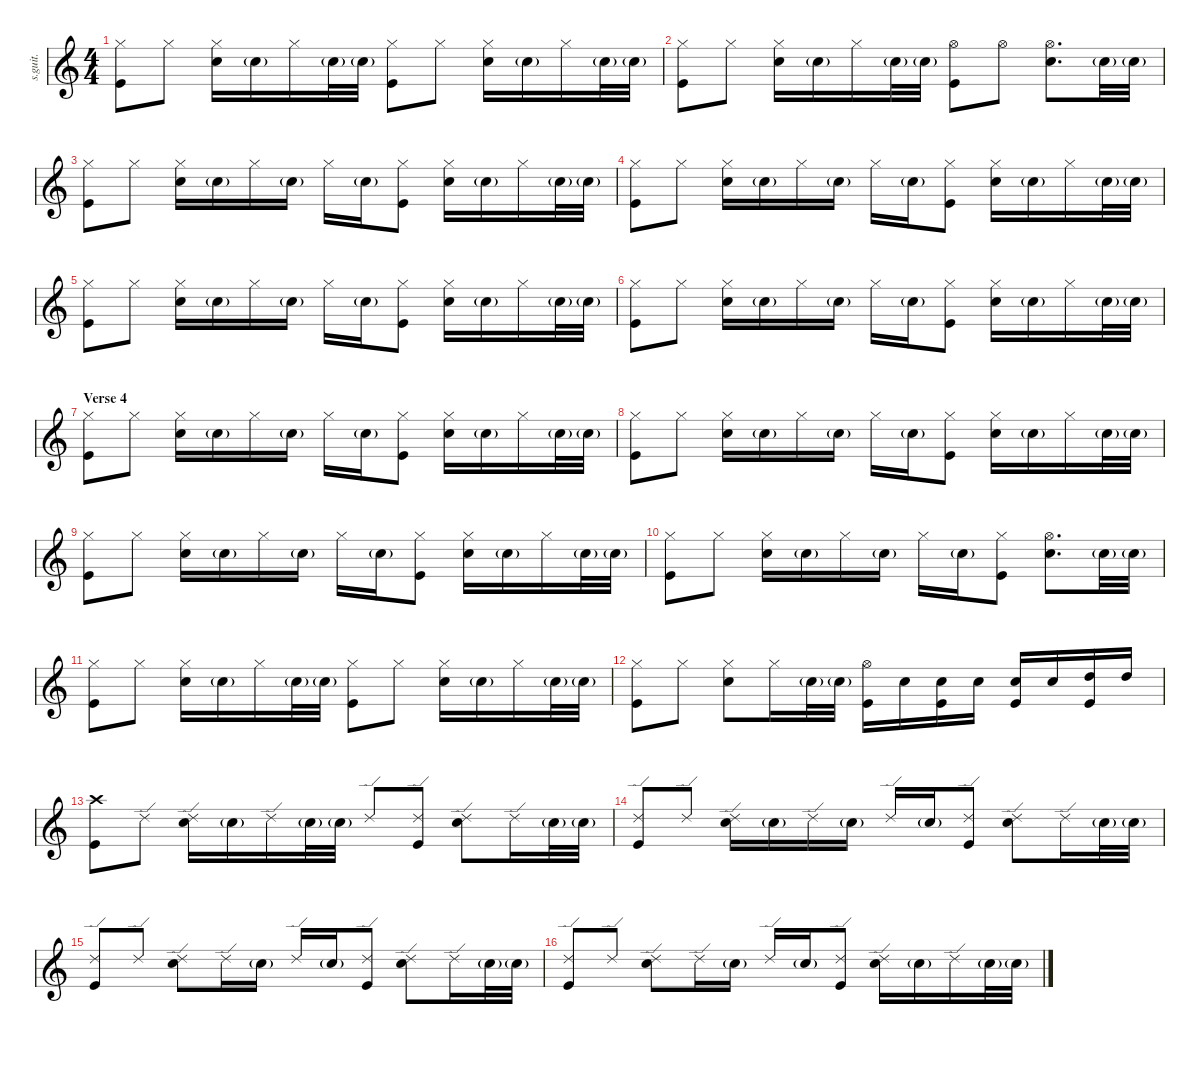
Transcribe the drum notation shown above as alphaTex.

\defaultSystemsLayout 4
\hideDynamics
\bracketExtendMode nobrackets
\track ("C. Smith" "s.guit.") {instrument percussion}
\staff {score}
\articulation defaults
\ts (4 4)
\tempo (96 hide)
\clef g2
\ks c
("Hi-Hat (closed)" "Kick (hit)").8{lyrics (0 "") lyrics (1 "") lyrics (2 "") lyrics (3 "") lyrics (4 "") dy f} "Hi-Hat (closed)".8{lyrics (0 "") lyrics (1 "") lyrics (2 "") lyrics (3 "") lyrics (4 "") dy mp} ("Hi-Hat (closed)" "Snare (hit) 2").16{lyrics (0 "") lyrics (1 "") lyrics (2 "") lyrics (3 "") lyrics (4 "") dy f} "Snare (hit) 2"{g}.16{lyrics (0 "") lyrics (1 "") lyrics (2 "") lyrics (3 "") lyrics (4 "") dy ppp} "Hi-Hat (closed)".16{lyrics (0 "") lyrics (1 "") lyrics (2 "") lyrics (3 "") lyrics (4 "") dy mp} "Snare (hit) 2"{g}.32{lyrics (0 "") lyrics (1 "") lyrics (2 "") lyrics (3 "") lyrics (4 "") dy ppp} "Snare (hit) 2"{g}.32{lyrics (0 "") lyrics (1 "") lyrics (2 "") lyrics (3 "") lyrics (4 "")} ("Hi-Hat (closed)" "Kick (hit)").8{lyrics (0 "") lyrics (1 "") lyrics (2 "") lyrics (3 "") lyrics (4 "") dy f} "Hi-Hat (closed)".8{lyrics (0 "") lyrics (1 "") lyrics (2 "") lyrics (3 "") lyrics (4 "") dy mp} ("Hi-Hat (closed)" "Snare (hit) 2").16{lyrics (0 "") lyrics (1 "") lyrics (2 "") lyrics (3 "") lyrics (4 "") dy f} "Snare (hit) 2"{g}.16{lyrics (0 "") lyrics (1 "") lyrics (2 "") lyrics (3 "") lyrics (4 "") dy ppp} "Hi-Hat (closed)".16{lyrics (0 "") lyrics (1 "") lyrics (2 "") lyrics (3 "") lyrics (4 "") dy mp} "Snare (hit) 2"{g}.32{lyrics (0 "") lyrics (1 "") lyrics (2 "") lyrics (3 "") lyrics (4 "") dy ppp} "Snare (hit) 2"{g}.32{lyrics (0 "") lyrics (1 "") lyrics (2 "") lyrics (3 "") lyrics (4 "")} |
("Hi-Hat (closed)" "Kick (hit)").8{lyrics (0 "") lyrics (1 "") lyrics (2 "") lyrics (3 "") lyrics (4 "") dy f} "Hi-Hat (closed)".8{lyrics (0 "") lyrics (1 "") lyrics (2 "") lyrics (3 "") lyrics (4 "") dy mp} ("Hi-Hat (closed)" "Snare (hit) 2").16{lyrics (0 "") lyrics (1 "") lyrics (2 "") lyrics (3 "") lyrics (4 "") dy f} "Snare (hit) 2"{g}.16{lyrics (0 "") lyrics (1 "") lyrics (2 "") lyrics (3 "") lyrics (4 "") dy ppp} "Hi-Hat (closed)".16{lyrics (0 "") lyrics (1 "") lyrics (2 "") lyrics (3 "") lyrics (4 "") dy mp} "Snare (hit) 2"{g}.32{lyrics (0 "") lyrics (1 "") lyrics (2 "") lyrics (3 "") lyrics (4 "") dy ppp} "Snare (hit) 2"{g}.32{lyrics (0 "") lyrics (1 "") lyrics (2 "") lyrics (3 "") lyrics (4 "")} ("Hi-Hat (open)" "Kick (hit)").8{lyrics (0 "") lyrics (1 "") lyrics (2 "") lyrics (3 "") lyrics (4 "") dy f} "Hi-Hat (open)".8{lyrics (0 "") lyrics (1 "") lyrics (2 "") lyrics (3 "") lyrics (4 "") dy mp} ("Hi-Hat (open)" "Snare (hit) 2").8{d lyrics (0 "") lyrics (1 "") lyrics (2 "") lyrics (3 "") lyrics (4 "") dy f} "Snare (hit) 2"{g}.32{lyrics (0 "") lyrics (1 "") lyrics (2 "") lyrics (3 "") lyrics (4 "") dy ppp} "Snare (hit) 2"{g}.32{lyrics (0 "") lyrics (1 "") lyrics (2 "") lyrics (3 "") lyrics (4 "")} |
("Hi-Hat (closed)" "Kick (hit)").8{lyrics (0 "") lyrics (1 "") lyrics (2 "") lyrics (3 "") lyrics (4 "") dy f} "Hi-Hat (closed)".8{lyrics (0 "") lyrics (1 "") lyrics (2 "") lyrics (3 "") lyrics (4 "") dy mp} ("Hi-Hat (closed)" "Snare (hit) 2").16{lyrics (0 "") lyrics (1 "") lyrics (2 "") lyrics (3 "") lyrics (4 "") dy f} "Snare (hit) 2"{g}.16{lyrics (0 "") lyrics (1 "") lyrics (2 "") lyrics (3 "") lyrics (4 "") dy ppp} "Hi-Hat (closed)".16{lyrics (0 "") lyrics (1 "") lyrics (2 "") lyrics (3 "") lyrics (4 "") dy mp} "Snare (hit) 2"{g}.16{lyrics (0 "") lyrics (1 "") lyrics (2 "") lyrics (3 "") lyrics (4 "") dy ppp} "Hi-Hat (closed)".16{lyrics (0 "") lyrics (1 "") lyrics (2 "") lyrics (3 "") lyrics (4 "") dy fff} "Snare (hit) 2"{g}.16{lyrics (0 "") lyrics (1 "") lyrics (2 "") lyrics (3 "") lyrics (4 "") dy ppp} ("Hi-Hat (closed)" "Kick (hit)").8{lyrics (0 "") lyrics (1 "") lyrics (2 "") lyrics (3 "") lyrics (4 "") dy f} ("Hi-Hat (closed)" "Snare (hit) 2").16{lyrics (0 "") lyrics (1 "") lyrics (2 "") lyrics (3 "") lyrics (4 "")} "Snare (hit) 2"{g}.16{lyrics (0 "") lyrics (1 "") lyrics (2 "") lyrics (3 "") lyrics (4 "") dy ppp} "Hi-Hat (closed)".16{lyrics (0 "") lyrics (1 "") lyrics (2 "") lyrics (3 "") lyrics (4 "") dy mp} "Snare (hit) 2"{g}.32{lyrics (0 "") lyrics (1 "") lyrics (2 "") lyrics (3 "") lyrics (4 "") dy ppp} "Snare (hit) 2"{g}.32{lyrics (0 "") lyrics (1 "") lyrics (2 "") lyrics (3 "") lyrics (4 "")} |
("Hi-Hat (closed)" "Kick (hit)").8{lyrics (0 "") lyrics (1 "") lyrics (2 "") lyrics (3 "") lyrics (4 "") dy f} "Hi-Hat (closed)".8{lyrics (0 "") lyrics (1 "") lyrics (2 "") lyrics (3 "") lyrics (4 "") dy mp} ("Hi-Hat (closed)" "Snare (hit) 2").16{lyrics (0 "") lyrics (1 "") lyrics (2 "") lyrics (3 "") lyrics (4 "") dy f} "Snare (hit) 2"{g}.16{lyrics (0 "") lyrics (1 "") lyrics (2 "") lyrics (3 "") lyrics (4 "") dy ppp} "Hi-Hat (closed)".16{lyrics (0 "") lyrics (1 "") lyrics (2 "") lyrics (3 "") lyrics (4 "") dy mp} "Snare (hit) 2"{g}.16{lyrics (0 "") lyrics (1 "") lyrics (2 "") lyrics (3 "") lyrics (4 "") dy ppp} "Hi-Hat (closed)".16{lyrics (0 "") lyrics (1 "") lyrics (2 "") lyrics (3 "") lyrics (4 "") dy fff} "Snare (hit) 2"{g}.16{lyrics (0 "") lyrics (1 "") lyrics (2 "") lyrics (3 "") lyrics (4 "") dy ppp} ("Hi-Hat (closed)" "Kick (hit)").8{lyrics (0 "") lyrics (1 "") lyrics (2 "") lyrics (3 "") lyrics (4 "") dy f} ("Hi-Hat (closed)" "Snare (hit) 2").16{lyrics (0 "") lyrics (1 "") lyrics (2 "") lyrics (3 "") lyrics (4 "")} "Snare (hit) 2"{g}.16{lyrics (0 "") lyrics (1 "") lyrics (2 "") lyrics (3 "") lyrics (4 "") dy ppp} "Hi-Hat (closed)".16{lyrics (0 "") lyrics (1 "") lyrics (2 "") lyrics (3 "") lyrics (4 "") dy mp} "Snare (hit) 2"{g}.32{lyrics (0 "") lyrics (1 "") lyrics (2 "") lyrics (3 "") lyrics (4 "") dy ppp} "Snare (hit) 2"{g}.32{lyrics (0 "") lyrics (1 "") lyrics (2 "") lyrics (3 "") lyrics (4 "")} |
("Hi-Hat (closed)" "Kick (hit)").8{lyrics (0 "") lyrics (1 "") lyrics (2 "") lyrics (3 "") lyrics (4 "") dy f} "Hi-Hat (closed)".8{lyrics (0 "") lyrics (1 "") lyrics (2 "") lyrics (3 "") lyrics (4 "") dy mp} ("Hi-Hat (closed)" "Snare (hit) 2").16{lyrics (0 "") lyrics (1 "") lyrics (2 "") lyrics (3 "") lyrics (4 "") dy f} "Snare (hit) 2"{g}.16{lyrics (0 "") lyrics (1 "") lyrics (2 "") lyrics (3 "") lyrics (4 "") dy ppp} "Hi-Hat (closed)".16{lyrics (0 "") lyrics (1 "") lyrics (2 "") lyrics (3 "") lyrics (4 "") dy mp} "Snare (hit) 2"{g}.16{lyrics (0 "") lyrics (1 "") lyrics (2 "") lyrics (3 "") lyrics (4 "") dy ppp} "Hi-Hat (closed)".16{lyrics (0 "") lyrics (1 "") lyrics (2 "") lyrics (3 "") lyrics (4 "") dy fff} "Snare (hit) 2"{g}.16{lyrics (0 "") lyrics (1 "") lyrics (2 "") lyrics (3 "") lyrics (4 "") dy ppp} ("Hi-Hat (closed)" "Kick (hit)").8{lyrics (0 "") lyrics (1 "") lyrics (2 "") lyrics (3 "") lyrics (4 "") dy f} ("Hi-Hat (closed)" "Snare (hit) 2").16{lyrics (0 "") lyrics (1 "") lyrics (2 "") lyrics (3 "") lyrics (4 "")} "Snare (hit) 2"{g}.16{lyrics (0 "") lyrics (1 "") lyrics (2 "") lyrics (3 "") lyrics (4 "") dy ppp} "Hi-Hat (closed)".16{lyrics (0 "") lyrics (1 "") lyrics (2 "") lyrics (3 "") lyrics (4 "") dy mp} "Snare (hit) 2"{g}.32{lyrics (0 "") lyrics (1 "") lyrics (2 "") lyrics (3 "") lyrics (4 "") dy ppp} "Snare (hit) 2"{g}.32{lyrics (0 "") lyrics (1 "") lyrics (2 "") lyrics (3 "") lyrics (4 "")} |
("Hi-Hat (closed)" "Kick (hit)").8{lyrics (0 "") lyrics (1 "") lyrics (2 "") lyrics (3 "") lyrics (4 "") dy f} "Hi-Hat (closed)".8{lyrics (0 "") lyrics (1 "") lyrics (2 "") lyrics (3 "") lyrics (4 "") dy mp} ("Hi-Hat (closed)" "Snare (hit) 2").16{lyrics (0 "") lyrics (1 "") lyrics (2 "") lyrics (3 "") lyrics (4 "") dy f} "Snare (hit) 2"{g}.16{lyrics (0 "") lyrics (1 "") lyrics (2 "") lyrics (3 "") lyrics (4 "") dy ppp} "Hi-Hat (closed)".16{lyrics (0 "") lyrics (1 "") lyrics (2 "") lyrics (3 "") lyrics (4 "") dy mp} "Snare (hit) 2"{g}.16{lyrics (0 "") lyrics (1 "") lyrics (2 "") lyrics (3 "") lyrics (4 "") dy ppp} "Hi-Hat (closed)".16{lyrics (0 "") lyrics (1 "") lyrics (2 "") lyrics (3 "") lyrics (4 "") dy fff} "Snare (hit) 2"{g}.16{lyrics (0 "") lyrics (1 "") lyrics (2 "") lyrics (3 "") lyrics (4 "") dy ppp} ("Hi-Hat (closed)" "Kick (hit)").8{lyrics (0 "") lyrics (1 "") lyrics (2 "") lyrics (3 "") lyrics (4 "") dy f} ("Hi-Hat (closed)" "Snare (hit) 2").16{lyrics (0 "") lyrics (1 "") lyrics (2 "") lyrics (3 "") lyrics (4 "")} "Snare (hit) 2"{g}.16{lyrics (0 "") lyrics (1 "") lyrics (2 "") lyrics (3 "") lyrics (4 "") dy ppp} "Hi-Hat (closed)".16{lyrics (0 "") lyrics (1 "") lyrics (2 "") lyrics (3 "") lyrics (4 "") dy mp} "Snare (hit) 2"{g}.32{lyrics (0 "") lyrics (1 "") lyrics (2 "") lyrics (3 "") lyrics (4 "") dy ppp} "Snare (hit) 2"{g}.32{lyrics (0 "") lyrics (1 "") lyrics (2 "") lyrics (3 "") lyrics (4 "")} |
\section ("" "Verse 4")
("Hi-Hat (closed)" "Kick (hit)").8{lyrics (0 "") lyrics (1 "") lyrics (2 "") lyrics (3 "") lyrics (4 "") dy f} "Hi-Hat (closed)".8{lyrics (0 "") lyrics (1 "") lyrics (2 "") lyrics (3 "") lyrics (4 "") dy mp} ("Hi-Hat (closed)" "Snare (hit) 2").16{lyrics (0 "") lyrics (1 "") lyrics (2 "") lyrics (3 "") lyrics (4 "") dy f} "Snare (hit) 2"{g}.16{lyrics (0 "") lyrics (1 "") lyrics (2 "") lyrics (3 "") lyrics (4 "") dy ppp} "Hi-Hat (closed)".16{lyrics (0 "") lyrics (1 "") lyrics (2 "") lyrics (3 "") lyrics (4 "") dy mp} "Snare (hit) 2"{g}.16{lyrics (0 "") lyrics (1 "") lyrics (2 "") lyrics (3 "") lyrics (4 "") dy ppp} "Hi-Hat (closed)".16{lyrics (0 "") lyrics (1 "") lyrics (2 "") lyrics (3 "") lyrics (4 "") dy fff} "Snare (hit) 2"{g}.16{lyrics (0 "") lyrics (1 "") lyrics (2 "") lyrics (3 "") lyrics (4 "") dy ppp} ("Hi-Hat (closed)" "Kick (hit)").8{lyrics (0 "") lyrics (1 "") lyrics (2 "") lyrics (3 "") lyrics (4 "") dy f} ("Hi-Hat (closed)" "Snare (hit) 2").16{lyrics (0 "") lyrics (1 "") lyrics (2 "") lyrics (3 "") lyrics (4 "")} "Snare (hit) 2"{g}.16{lyrics (0 "") lyrics (1 "") lyrics (2 "") lyrics (3 "") lyrics (4 "") dy ppp} "Hi-Hat (closed)".16{lyrics (0 "") lyrics (1 "") lyrics (2 "") lyrics (3 "") lyrics (4 "") dy mp} "Snare (hit) 2"{g}.32{lyrics (0 "") lyrics (1 "") lyrics (2 "") lyrics (3 "") lyrics (4 "") dy ppp} "Snare (hit) 2"{g}.32{lyrics (0 "") lyrics (1 "") lyrics (2 "") lyrics (3 "") lyrics (4 "")} |
("Hi-Hat (closed)" "Kick (hit)").8{lyrics (0 "") lyrics (1 "") lyrics (2 "") lyrics (3 "") lyrics (4 "") dy f} "Hi-Hat (closed)".8{lyrics (0 "") lyrics (1 "") lyrics (2 "") lyrics (3 "") lyrics (4 "") dy mp} ("Hi-Hat (closed)" "Snare (hit) 2").16{lyrics (0 "") lyrics (1 "") lyrics (2 "") lyrics (3 "") lyrics (4 "") dy f} "Snare (hit) 2"{g}.16{lyrics (0 "") lyrics (1 "") lyrics (2 "") lyrics (3 "") lyrics (4 "") dy ppp} "Hi-Hat (closed)".16{lyrics (0 "") lyrics (1 "") lyrics (2 "") lyrics (3 "") lyrics (4 "") dy mp} "Snare (hit) 2"{g}.16{lyrics (0 "") lyrics (1 "") lyrics (2 "") lyrics (3 "") lyrics (4 "") dy ppp} "Hi-Hat (closed)".16{lyrics (0 "") lyrics (1 "") lyrics (2 "") lyrics (3 "") lyrics (4 "") dy fff} "Snare (hit) 2"{g}.16{lyrics (0 "") lyrics (1 "") lyrics (2 "") lyrics (3 "") lyrics (4 "") dy ppp} ("Hi-Hat (closed)" "Kick (hit)").8{lyrics (0 "") lyrics (1 "") lyrics (2 "") lyrics (3 "") lyrics (4 "") dy f} ("Hi-Hat (closed)" "Snare (hit) 2").16{lyrics (0 "") lyrics (1 "") lyrics (2 "") lyrics (3 "") lyrics (4 "")} "Snare (hit) 2"{g}.16{lyrics (0 "") lyrics (1 "") lyrics (2 "") lyrics (3 "") lyrics (4 "") dy ppp} "Hi-Hat (closed)".16{lyrics (0 "") lyrics (1 "") lyrics (2 "") lyrics (3 "") lyrics (4 "") dy mp} "Snare (hit) 2"{g}.32{lyrics (0 "") lyrics (1 "") lyrics (2 "") lyrics (3 "") lyrics (4 "") dy ppp} "Snare (hit) 2"{g}.32{lyrics (0 "") lyrics (1 "") lyrics (2 "") lyrics (3 "") lyrics (4 "")} |
("Hi-Hat (closed)" "Kick (hit)").8{lyrics (0 "") lyrics (1 "") lyrics (2 "") lyrics (3 "") lyrics (4 "") dy f} "Hi-Hat (closed)".8{lyrics (0 "") lyrics (1 "") lyrics (2 "") lyrics (3 "") lyrics (4 "") dy mp} ("Hi-Hat (closed)" "Snare (hit) 2").16{lyrics (0 "") lyrics (1 "") lyrics (2 "") lyrics (3 "") lyrics (4 "") dy f} "Snare (hit) 2"{g}.16{lyrics (0 "") lyrics (1 "") lyrics (2 "") lyrics (3 "") lyrics (4 "") dy ppp} "Hi-Hat (closed)".16{lyrics (0 "") lyrics (1 "") lyrics (2 "") lyrics (3 "") lyrics (4 "") dy mp} "Snare (hit) 2"{g}.16{lyrics (0 "") lyrics (1 "") lyrics (2 "") lyrics (3 "") lyrics (4 "") dy ppp} "Hi-Hat (closed)".16{lyrics (0 "") lyrics (1 "") lyrics (2 "") lyrics (3 "") lyrics (4 "") dy fff} "Snare (hit) 2"{g}.16{lyrics (0 "") lyrics (1 "") lyrics (2 "") lyrics (3 "") lyrics (4 "") dy ppp} ("Hi-Hat (closed)" "Kick (hit)").8{lyrics (0 "") lyrics (1 "") lyrics (2 "") lyrics (3 "") lyrics (4 "") dy f} ("Hi-Hat (closed)" "Snare (hit) 2").16{lyrics (0 "") lyrics (1 "") lyrics (2 "") lyrics (3 "") lyrics (4 "")} "Snare (hit) 2"{g}.16{lyrics (0 "") lyrics (1 "") lyrics (2 "") lyrics (3 "") lyrics (4 "") dy ppp} "Hi-Hat (closed)".16{lyrics (0 "") lyrics (1 "") lyrics (2 "") lyrics (3 "") lyrics (4 "") dy mp} "Snare (hit) 2"{g}.32{lyrics (0 "") lyrics (1 "") lyrics (2 "") lyrics (3 "") lyrics (4 "") dy ppp} "Snare (hit) 2"{g}.32{lyrics (0 "") lyrics (1 "") lyrics (2 "") lyrics (3 "") lyrics (4 "")} |
("Hi-Hat (closed)" "Kick (hit)").8{lyrics (0 "") lyrics (1 "") lyrics (2 "") lyrics (3 "") lyrics (4 "") dy f} "Hi-Hat (closed)".8{lyrics (0 "") lyrics (1 "") lyrics (2 "") lyrics (3 "") lyrics (4 "") dy mp} ("Hi-Hat (closed)" "Snare (hit) 2").16{lyrics (0 "") lyrics (1 "") lyrics (2 "") lyrics (3 "") lyrics (4 "") dy f} "Snare (hit) 2"{g}.16{lyrics (0 "") lyrics (1 "") lyrics (2 "") lyrics (3 "") lyrics (4 "") dy ppp} "Hi-Hat (closed)".16{lyrics (0 "") lyrics (1 "") lyrics (2 "") lyrics (3 "") lyrics (4 "") dy mp} "Snare (hit) 2"{g}.16{lyrics (0 "") lyrics (1 "") lyrics (2 "") lyrics (3 "") lyrics (4 "") dy ppp} "Hi-Hat (closed)".16{lyrics (0 "") lyrics (1 "") lyrics (2 "") lyrics (3 "") lyrics (4 "") dy fff} "Snare (hit) 2"{g}.16{lyrics (0 "") lyrics (1 "") lyrics (2 "") lyrics (3 "") lyrics (4 "") dy ppp} ("Hi-Hat (closed)" "Kick (hit)").8{lyrics (0 "") lyrics (1 "") lyrics (2 "") lyrics (3 "") lyrics (4 "") dy f} ("Hi-Hat (open)" "Snare (hit) 2").8{d lyrics (0 "") lyrics (1 "") lyrics (2 "") lyrics (3 "") lyrics (4 "")} "Snare (hit) 2"{g}.32{lyrics (0 "") lyrics (1 "") lyrics (2 "") lyrics (3 "") lyrics (4 "") dy ppp} "Snare (hit) 2"{g}.32{lyrics (0 "") lyrics (1 "") lyrics (2 "") lyrics (3 "") lyrics (4 "")} |
("Hi-Hat (closed)" "Kick (hit)").8{lyrics (0 "") lyrics (1 "") lyrics (2 "") lyrics (3 "") lyrics (4 "") dy f} "Hi-Hat (closed)".8{lyrics (0 "") lyrics (1 "") lyrics (2 "") lyrics (3 "") lyrics (4 "") dy mp} ("Hi-Hat (closed)" "Snare (hit) 2").16{lyrics (0 "") lyrics (1 "") lyrics (2 "") lyrics (3 "") lyrics (4 "") dy f} "Snare (hit) 2"{g}.16{lyrics (0 "") lyrics (1 "") lyrics (2 "") lyrics (3 "") lyrics (4 "") dy ppp} "Hi-Hat (closed)".16{lyrics (0 "") lyrics (1 "") lyrics (2 "") lyrics (3 "") lyrics (4 "") dy mp} "Snare (hit) 2"{g}.32{lyrics (0 "") lyrics (1 "") lyrics (2 "") lyrics (3 "") lyrics (4 "") dy ppp} "Snare (hit) 2"{g}.32{lyrics (0 "") lyrics (1 "") lyrics (2 "") lyrics (3 "") lyrics (4 "")} ("Hi-Hat (closed)" "Kick (hit)").8{lyrics (0 "") lyrics (1 "") lyrics (2 "") lyrics (3 "") lyrics (4 "") dy f} "Hi-Hat (closed)".8{lyrics (0 "") lyrics (1 "") lyrics (2 "") lyrics (3 "") lyrics (4 "") dy mp} ("Hi-Hat (closed)" "Snare (hit) 2").16{lyrics (0 "") lyrics (1 "") lyrics (2 "") lyrics (3 "") lyrics (4 "") dy f} "Snare (hit) 2"{g}.16{lyrics (0 "") lyrics (1 "") lyrics (2 "") lyrics (3 "") lyrics (4 "") dy ppp} "Hi-Hat (closed)".16{lyrics (0 "") lyrics (1 "") lyrics (2 "") lyrics (3 "") lyrics (4 "") dy mp} "Snare (hit) 2"{g}.32{lyrics (0 "") lyrics (1 "") lyrics (2 "") lyrics (3 "") lyrics (4 "") dy ppp} "Snare (hit) 2"{g}.32{lyrics (0 "") lyrics (1 "") lyrics (2 "") lyrics (3 "") lyrics (4 "")} |
("Hi-Hat (closed)" "Kick (hit)").8{lyrics (0 "") lyrics (1 "") lyrics (2 "") lyrics (3 "") lyrics (4 "") dy f} "Hi-Hat (closed)".8{lyrics (0 "") lyrics (1 "") lyrics (2 "") lyrics (3 "") lyrics (4 "") dy mp} ("Hi-Hat (closed)" "Snare (hit) 2").8{lyrics (0 "") lyrics (1 "") lyrics (2 "") lyrics (3 "") lyrics (4 "") dy f} "Hi-Hat (closed)".16{lyrics (0 "") lyrics (1 "") lyrics (2 "") lyrics (3 "") lyrics (4 "") dy fff} "Snare (hit) 2"{g}.32{lyrics (0 "") lyrics (1 "") lyrics (2 "") lyrics (3 "") lyrics (4 "") dy ppp} "Snare (hit) 2"{g}.32{lyrics (0 "") lyrics (1 "") lyrics (2 "") lyrics (3 "") lyrics (4 "")} ("Hi-Hat (open)" "Kick (hit)").16{lyrics (0 "") lyrics (1 "") lyrics (2 "") lyrics (3 "") lyrics (4 "") dy f} "Snare (hit) 2".16{lyrics (0 "") lyrics (1 "") lyrics (2 "") lyrics (3 "") lyrics (4 "") dy p} ("Snare (hit) 2" "Kick (hit)").16{lyrics (0 "") lyrics (1 "") lyrics (2 "") lyrics (3 "") lyrics (4 "") dy mp} "Snare (hit) 2".16{lyrics (0 "") lyrics (1 "") lyrics (2 "") lyrics (3 "") lyrics (4 "") dy f} ("Snare (hit) 2" "Kick (hit)").16{lyrics (0 "") lyrics (1 "") lyrics (2 "") lyrics (3 "") lyrics (4 "") dy fff} "Snare (hit) 2".16{lyrics (0 "") lyrics (1 "") lyrics (2 "") lyrics (3 "") lyrics (4 "")} ("High Tom (hit)" "Kick (hit)").16{lyrics (0 "") lyrics (1 "") lyrics (2 "") lyrics (3 "") lyrics (4 "")} "High Tom (hit)".16{lyrics (0 "") lyrics (1 "") lyrics (2 "") lyrics (3 "") lyrics (4 "")} |
("Crash high (hit)" "Kick (hit)").8{lyrics (0 "") lyrics (1 "") lyrics (2 "") lyrics (3 "") lyrics (4 "") dy f} "Ride (edge) 2".8{lyrics (0 "") lyrics (1 "") lyrics (2 "") lyrics (3 "") lyrics (4 "")} ("Ride (edge) 2" "Snare (hit) 2").16{lyrics (0 "") lyrics (1 "") lyrics (2 "") lyrics (3 "") lyrics (4 "")} "Snare (hit) 2"{g}.16{lyrics (0 "") lyrics (1 "") lyrics (2 "") lyrics (3 "") lyrics (4 "") dy ppp} "Ride (edge) 2".16{lyrics (0 "") lyrics (1 "") lyrics (2 "") lyrics (3 "") lyrics (4 "") dy f} "Snare (hit) 2"{g}.32{lyrics (0 "") lyrics (1 "") lyrics (2 "") lyrics (3 "") lyrics (4 "") dy ppp} "Snare (hit) 2"{g}.32{lyrics (0 "") lyrics (1 "") lyrics (2 "") lyrics (3 "") lyrics (4 "")} "Ride (edge) 2".8{lyrics (0 "") lyrics (1 "") lyrics (2 "") lyrics (3 "") lyrics (4 "") dy f} ("Ride (edge) 2" "Kick (hit)").8{lyrics (0 "") lyrics (1 "") lyrics (2 "") lyrics (3 "") lyrics (4 "")} ("Ride (edge) 2" "Snare (hit) 2").8{lyrics (0 "") lyrics (1 "") lyrics (2 "") lyrics (3 "") lyrics (4 "")} "Ride (edge) 2".16{lyrics (0 "") lyrics (1 "") lyrics (2 "") lyrics (3 "") lyrics (4 "")} "Snare (hit) 2"{g}.32{lyrics (0 "") lyrics (1 "") lyrics (2 "") lyrics (3 "") lyrics (4 "") dy ppp} "Snare (hit) 2"{g}.32{lyrics (0 "") lyrics (1 "") lyrics (2 "") lyrics (3 "") lyrics (4 "")} |
("Ride (edge) 2" "Kick (hit)").8{lyrics (0 "") lyrics (1 "") lyrics (2 "") lyrics (3 "") lyrics (4 "") dy f} "Ride (edge) 2".8{lyrics (0 "") lyrics (1 "") lyrics (2 "") lyrics (3 "") lyrics (4 "")} ("Ride (edge) 2" "Snare (hit) 2").16{lyrics (0 "") lyrics (1 "") lyrics (2 "") lyrics (3 "") lyrics (4 "")} "Snare (hit) 2"{g}.16{lyrics (0 "") lyrics (1 "") lyrics (2 "") lyrics (3 "") lyrics (4 "") dy ppp} "Ride (edge) 2".16{lyrics (0 "") lyrics (1 "") lyrics (2 "") lyrics (3 "") lyrics (4 "") dy f} "Snare (hit) 2"{g}.16{lyrics (0 "") lyrics (1 "") lyrics (2 "") lyrics (3 "") lyrics (4 "") dy ppp} "Ride (edge) 2".16{lyrics (0 "") lyrics (1 "") lyrics (2 "") lyrics (3 "") lyrics (4 "") dy f} "Snare (hit) 2"{g}.16{lyrics (0 "") lyrics (1 "") lyrics (2 "") lyrics (3 "") lyrics (4 "") dy ppp} ("Ride (edge) 2" "Kick (hit)").8{lyrics (0 "") lyrics (1 "") lyrics (2 "") lyrics (3 "") lyrics (4 "") dy f} ("Ride (edge) 2" "Snare (hit) 2").8{lyrics (0 "") lyrics (1 "") lyrics (2 "") lyrics (3 "") lyrics (4 "")} "Ride (edge) 2".16{lyrics (0 "") lyrics (1 "") lyrics (2 "") lyrics (3 "") lyrics (4 "")} "Snare (hit) 2"{g}.32{lyrics (0 "") lyrics (1 "") lyrics (2 "") lyrics (3 "") lyrics (4 "") dy ppp} "Snare (hit) 2"{g}.32{lyrics (0 "") lyrics (1 "") lyrics (2 "") lyrics (3 "") lyrics (4 "")} |
("Ride (edge) 2" "Kick (hit)").8{lyrics (0 "") lyrics (1 "") lyrics (2 "") lyrics (3 "") lyrics (4 "") dy f} "Ride (edge) 2".8{lyrics (0 "") lyrics (1 "") lyrics (2 "") lyrics (3 "") lyrics (4 "")} ("Ride (edge) 2" "Snare (hit) 2").8{lyrics (0 "") lyrics (1 "") lyrics (2 "") lyrics (3 "") lyrics (4 "")} "Ride (edge) 2".16{lyrics (0 "") lyrics (1 "") lyrics (2 "") lyrics (3 "") lyrics (4 "")} "Snare (hit) 2"{g}.16{lyrics (0 "") lyrics (1 "") lyrics (2 "") lyrics (3 "") lyrics (4 "") dy ppp} "Ride (edge) 2".16{lyrics (0 "") lyrics (1 "") lyrics (2 "") lyrics (3 "") lyrics (4 "") dy f} "Snare (hit) 2"{g}.16{lyrics (0 "") lyrics (1 "") lyrics (2 "") lyrics (3 "") lyrics (4 "") dy ppp} ("Ride (edge) 2" "Kick (hit)").8{lyrics (0 "") lyrics (1 "") lyrics (2 "") lyrics (3 "") lyrics (4 "") dy f} ("Ride (edge) 2" "Snare (hit) 2").8{lyrics (0 "") lyrics (1 "") lyrics (2 "") lyrics (3 "") lyrics (4 "")} "Ride (edge) 2".16{lyrics (0 "") lyrics (1 "") lyrics (2 "") lyrics (3 "") lyrics (4 "")} "Snare (hit) 2"{g}.32{lyrics (0 "") lyrics (1 "") lyrics (2 "") lyrics (3 "") lyrics (4 "") dy ppp} "Snare (hit) 2"{g}.32{lyrics (0 "") lyrics (1 "") lyrics (2 "") lyrics (3 "") lyrics (4 "")} |
("Ride (edge) 2" "Kick (hit)").8{lyrics (0 "") lyrics (1 "") lyrics (2 "") lyrics (3 "") lyrics (4 "") dy f} "Ride (edge) 2".8{lyrics (0 "") lyrics (1 "") lyrics (2 "") lyrics (3 "") lyrics (4 "")} ("Ride (edge) 2" "Snare (hit) 2").8{lyrics (0 "") lyrics (1 "") lyrics (2 "") lyrics (3 "") lyrics (4 "")} "Ride (edge) 2".16{lyrics (0 "") lyrics (1 "") lyrics (2 "") lyrics (3 "") lyrics (4 "")} "Snare (hit) 2"{g}.16{lyrics (0 "") lyrics (1 "") lyrics (2 "") lyrics (3 "") lyrics (4 "") dy ppp} "Ride (edge) 2".16{lyrics (0 "") lyrics (1 "") lyrics (2 "") lyrics (3 "") lyrics (4 "") dy f} "Snare (hit) 2"{g}.16{lyrics (0 "") lyrics (1 "") lyrics (2 "") lyrics (3 "") lyrics (4 "") dy ppp} ("Ride (edge) 2" "Kick (hit)").8{lyrics (0 "") lyrics (1 "") lyrics (2 "") lyrics (3 "") lyrics (4 "") dy f} ("Ride (edge) 2" "Snare (hit) 2").16{lyrics (0 "") lyrics (1 "") lyrics (2 "") lyrics (3 "") lyrics (4 "")} "Snare (hit) 2"{g}.16{lyrics (0 "") lyrics (1 "") lyrics (2 "") lyrics (3 "") lyrics (4 "") dy ppp} "Ride (edge) 2".16{lyrics (0 "") lyrics (1 "") lyrics (2 "") lyrics (3 "") lyrics (4 "") dy f} "Snare (hit) 2"{g}.32{lyrics (0 "") lyrics (1 "") lyrics (2 "") lyrics (3 "") lyrics (4 "") dy ppp} "Snare (hit) 2"{g}.32{lyrics (0 "") lyrics (1 "") lyrics (2 "") lyrics (3 "") lyrics (4 "")}
